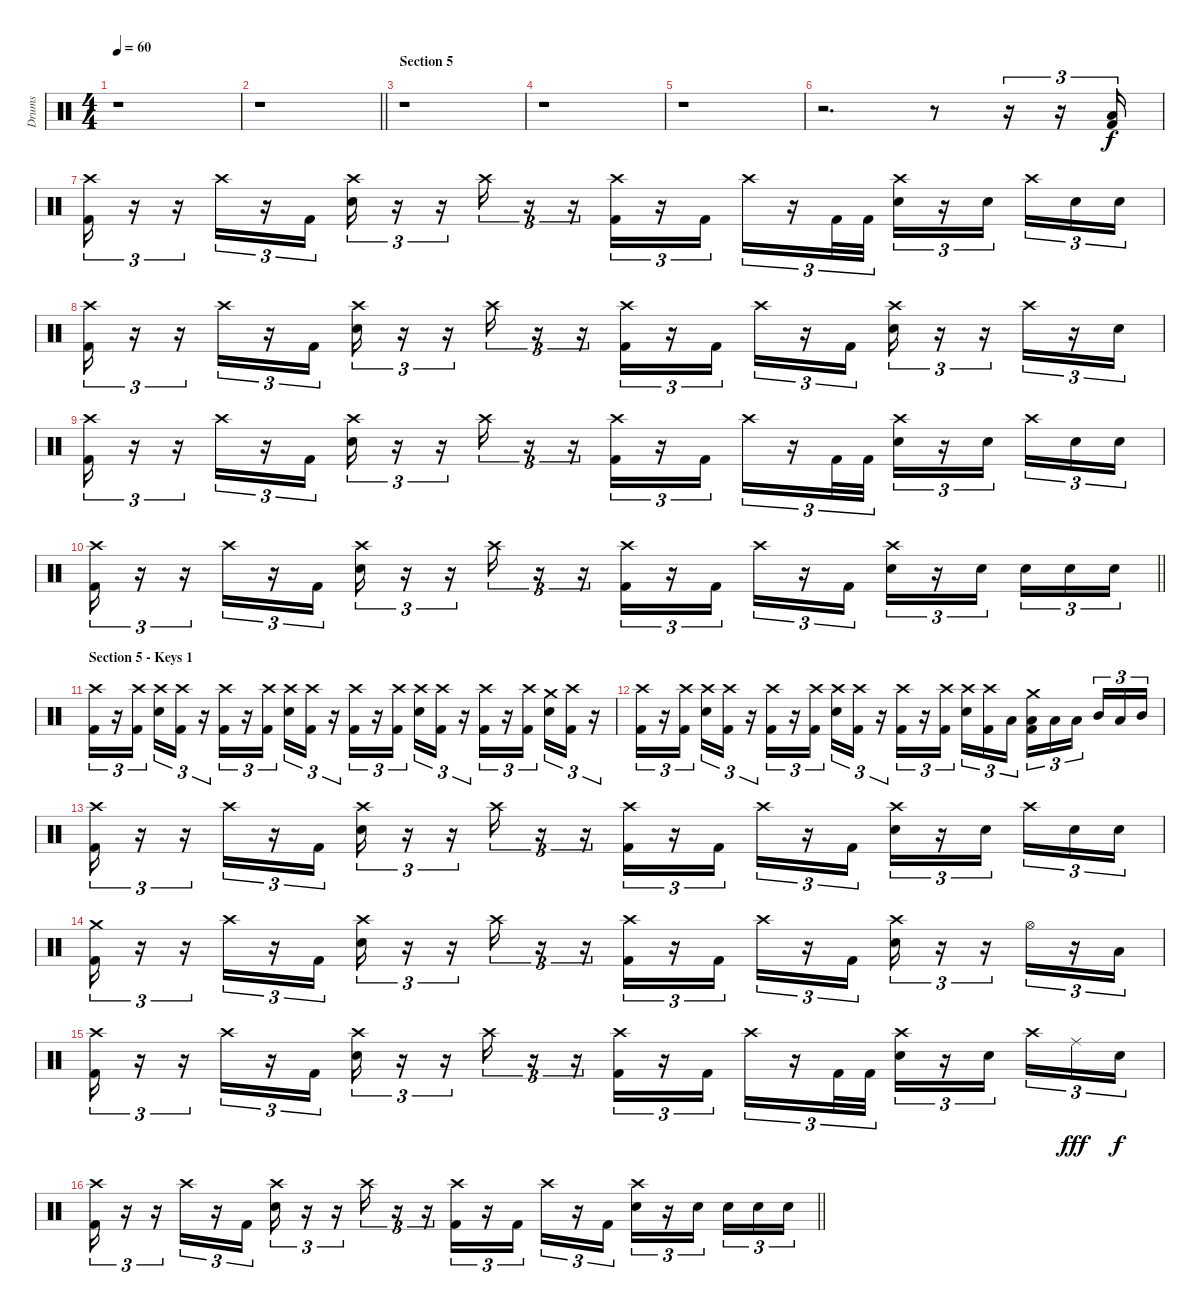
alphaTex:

\track ("Drums" "Drums") {instrument percussion}
\staff {score}
\articulation defaults
\ts (4 4)
\tempo 60
\clef neutral
\ks c
r.1{dy f} |
\barLineRight lightlight
r.1 |
\section ("" "Section 5")
r.1 |
r.1 |
r.1 |
r.2{d} r.8 r.16{tu (3 2)} r.16{tu (3 2)} ("Low Floor Tom (hit)" "Kick (hit) 2").16{tu (3 2)} |
("Crash high (hit)" "Kick (hit) 2").16{tu (3 2)} r.16{tu (3 2)} r.16{tu (3 2)} "Crash high (hit)".16{tu (3 2)} r.16{tu (3 2)} "Kick (hit) 2".16{tu (3 2)} ("Crash high (hit)" "Electric Snare (hit)").16{tu (3 2)} r.16{tu (3 2)} r.16{tu (3 2)} "Crash high (hit)".16{tu (3 2)} r.16{tu (3 2)} r.16{tu (3 2)} ("Crash high (hit)" "Kick (hit) 2").16{tu (3 2)} r.16{tu (3 2)} "Kick (hit) 2".16{tu (3 2)} "Crash high (hit)".16{tu (3 2)} r.16{tu (3 2)} "Kick (hit) 2".32{tu (3 2)} "Kick (hit) 2".32{tu (3 2)} ("Crash high (hit)" "Electric Snare (hit)").16{tu (3 2)} r.16{tu (3 2)} "Electric Snare (hit)".16{tu (3 2) beam splitsecondary} "Crash high (hit)".16{tu (3 2)} "Electric Snare (hit)".16{tu (3 2)} "Electric Snare (hit)".16{tu (3 2)} |
("Crash high (hit)" "Kick (hit) 2").16{tu (3 2)} r.16{tu (3 2)} r.16{tu (3 2)} "Crash high (hit)".16{tu (3 2)} r.16{tu (3 2)} "Kick (hit) 2".16{tu (3 2)} ("Crash high (hit)" "Electric Snare (hit)").16{tu (3 2)} r.16{tu (3 2)} r.16{tu (3 2)} "Crash high (hit)".16{tu (3 2)} r.16{tu (3 2)} r.16{tu (3 2)} ("Crash high (hit)" "Kick (hit) 2").16{tu (3 2)} r.16{tu (3 2)} "Kick (hit) 2".16{tu (3 2)} "Crash high (hit)".16{tu (3 2)} r.16{tu (3 2)} "Kick (hit) 2".16{tu (3 2)} ("Crash high (hit)" "Electric Snare (hit)").16{tu (3 2)} r.16{tu (3 2)} r.16{tu (3 2)} "Crash high (hit)".16{tu (3 2)} r.16{tu (3 2)} "Electric Snare (hit)".16{tu (3 2)} |
("Crash high (hit)" "Kick (hit) 2").16{tu (3 2)} r.16{tu (3 2)} r.16{tu (3 2)} "Crash high (hit)".16{tu (3 2)} r.16{tu (3 2)} "Kick (hit) 2".16{tu (3 2)} ("Crash high (hit)" "Electric Snare (hit)").16{tu (3 2)} r.16{tu (3 2)} r.16{tu (3 2)} "Crash high (hit)".16{tu (3 2)} r.16{tu (3 2)} r.16{tu (3 2)} ("Crash high (hit)" "Kick (hit) 2").16{tu (3 2)} r.16{tu (3 2)} "Kick (hit) 2".16{tu (3 2)} "Crash high (hit)".16{tu (3 2)} r.16{tu (3 2)} "Kick (hit) 2".32{tu (3 2)} "Kick (hit) 2".32{tu (3 2)} ("Crash high (hit)" "Electric Snare (hit)").16{tu (3 2)} r.16{tu (3 2)} "Electric Snare (hit)".16{tu (3 2) beam splitsecondary} "Crash high (hit)".16{tu (3 2)} "Electric Snare (hit)".16{tu (3 2)} "Electric Snare (hit)".16{tu (3 2)} |
\barLineRight lightlight
("Crash high (hit)" "Kick (hit) 2").16{tu (3 2)} r.16{tu (3 2)} r.16{tu (3 2)} "Crash high (hit)".16{tu (3 2)} r.16{tu (3 2)} "Kick (hit) 2".16{tu (3 2)} ("Crash high (hit)" "Electric Snare (hit)").16{tu (3 2)} r.16{tu (3 2)} r.16{tu (3 2)} "Crash high (hit)".16{tu (3 2)} r.16{tu (3 2)} r.16{tu (3 2)} ("Crash high (hit)" "Kick (hit) 2").16{tu (3 2)} r.16{tu (3 2)} "Kick (hit) 2".16{tu (3 2)} "Crash high (hit)".16{tu (3 2)} r.16{tu (3 2)} "Kick (hit) 2".16{tu (3 2)} ("Crash high (hit)" "Electric Snare (hit)").16{tu (3 2)} r.16{tu (3 2)} "Electric Snare (hit)".16{tu (3 2) beam splitsecondary} "Electric Snare (hit)".16{tu (3 2)} "Electric Snare (hit)".16{tu (3 2)} "Electric Snare (hit)".16{tu (3 2)} |
\section ("" "Section 5 - Keys 1")
("Crash high (hit)" "Kick (hit) 2").16{tu (3 2)} r.16{tu (3 2)} ("Crash high (hit)" "Kick (hit) 2").16{tu (3 2) beam splitsecondary} ("Crash high (hit)" "Electric Snare (hit)").16{tu (3 2)} ("Crash high (hit)" "Kick (hit) 2").16{tu (3 2)} r.16{tu (3 2)} ("Crash high (hit)" "Kick (hit) 2").16{tu (3 2)} r.16{tu (3 2)} ("Crash high (hit)" "Kick (hit) 2").16{tu (3 2) beam splitsecondary} ("Crash high (hit)" "Electric Snare (hit)").16{tu (3 2)} ("Crash high (hit)" "Kick (hit) 2").16{tu (3 2)} r.16{tu (3 2)} ("Crash high (hit)" "Kick (hit) 2").16{tu (3 2)} r.16{tu (3 2)} ("Crash high (hit)" "Kick (hit) 2").16{tu (3 2) beam splitsecondary} ("Crash high (hit)" "Electric Snare (hit)").16{tu (3 2)} ("Crash high (hit)" "Kick (hit) 2").16{tu (3 2)} r.16{tu (3 2)} ("Crash high (hit)" "Kick (hit) 2").16{tu (3 2)} r.16{tu (3 2)} ("Crash high (hit)" "Kick (hit) 2").16{tu (3 2) beam splitsecondary} ("Crash medium (hit)" "Electric Snare (hit)").16{tu (3 2)} ("Crash high (hit)" "Kick (hit) 2").16{tu (3 2)} r.16{tu (3 2)} |
("Crash high (hit)" "Kick (hit) 2").16{tu (3 2)} r.16{tu (3 2)} ("Crash high (hit)" "Kick (hit) 2").16{tu (3 2) beam splitsecondary} ("Crash high (hit)" "Electric Snare (hit)").16{tu (3 2)} ("Crash high (hit)" "Kick (hit) 2").16{tu (3 2)} r.16{tu (3 2)} ("Crash high (hit)" "Kick (hit) 2").16{tu (3 2)} r.16{tu (3 2)} ("Crash high (hit)" "Kick (hit) 2").16{tu (3 2) beam splitsecondary} ("Crash high (hit)" "Electric Snare (hit)").16{tu (3 2)} ("Crash high (hit)" "Kick (hit) 2").16{tu (3 2)} r.16{tu (3 2)} ("Crash high (hit)" "Kick (hit) 2").16{tu (3 2)} r.16{tu (3 2)} ("Crash high (hit)" "Kick (hit) 2").16{tu (3 2) beam splitsecondary} ("Crash high (hit)" "Electric Snare (hit)").16{tu (3 2)} ("Crash high (hit)" "Kick (hit) 2").16{tu (3 2)} "Low Tom (hit)".16{tu (3 2)} ("Crash medium (hit)" "Low Floor Tom (hit)" "Kick (hit) 2").16{tu (3 2)} "Low Tom (hit)".16{tu (3 2)} "Low Floor Tom (hit)".16{tu (3 2) beam splitsecondary} "Mid Tom (hit)".16{tu (3 2)} "Low Floor Tom (hit)".16{tu (3 2)} "Mid Tom (hit)".16{tu (3 2)} |
("Crash high (hit)" "Kick (hit) 2").16{tu (3 2)} r.16{tu (3 2)} r.16{tu (3 2)} "Crash high (hit)".16{tu (3 2)} r.16{tu (3 2)} "Kick (hit) 2".16{tu (3 2)} ("Crash high (hit)" "Electric Snare (hit)").16{tu (3 2)} r.16{tu (3 2)} r.16{tu (3 2)} "Crash high (hit)".16{tu (3 2)} r.16{tu (3 2)} r.16{tu (3 2)} ("Crash high (hit)" "Kick (hit) 2").16{tu (3 2)} r.16{tu (3 2)} "Kick (hit) 2".16{tu (3 2)} "Crash high (hit)".16{tu (3 2)} r.16{tu (3 2)} "Kick (hit) 2".16{tu (3 2)} ("Crash high (hit)" "Electric Snare (hit)").16{tu (3 2)} r.16{tu (3 2)} "Electric Snare (hit)".16{tu (3 2) beam splitsecondary} "Crash high (hit)".16{tu (3 2)} "Electric Snare (hit)".16{tu (3 2)} "Electric Snare (hit)".16{tu (3 2)} |
("Crash medium (hit)" "Kick (hit) 2").16{tu (3 2)} r.16{tu (3 2)} r.16{tu (3 2)} "Crash high (hit)".16{tu (3 2)} r.16{tu (3 2)} "Kick (hit) 2".16{tu (3 2)} ("Crash high (hit)" "Electric Snare (hit)").16{tu (3 2)} r.16{tu (3 2)} r.16{tu (3 2)} "Crash high (hit)".16{tu (3 2)} r.16{tu (3 2)} r.16{tu (3 2)} ("Crash high (hit)" "Kick (hit) 2").16{tu (3 2)} r.16{tu (3 2)} "Kick (hit) 2".16{tu (3 2)} "Crash high (hit)".16{tu (3 2)} r.16{tu (3 2)} "Kick (hit) 2".16{tu (3 2)} ("Crash high (hit)" "Electric Snare (hit)").16{tu (3 2)} r.16{tu (3 2)} r.16{tu (3 2)} "Hi-Hat (open)".16{tu (3 2)} r.16{tu (3 2)} "Low Floor Tom (hit)".16{tu (3 2)} |
("Crash high (hit)" "Kick (hit) 2").16{tu (3 2)} r.16{tu (3 2)} r.16{tu (3 2)} "Crash high (hit)".16{tu (3 2)} r.16{tu (3 2)} "Kick (hit) 2".16{tu (3 2)} ("Crash high (hit)" "Electric Snare (hit)").16{tu (3 2)} r.16{tu (3 2)} r.16{tu (3 2)} "Crash high (hit)".16{tu (3 2)} r.16{tu (3 2)} r.16{tu (3 2)} ("Crash high (hit)" "Kick (hit) 2").16{tu (3 2)} r.16{tu (3 2)} "Kick (hit) 2".16{tu (3 2)} "Crash high (hit)".16{tu (3 2)} r.16{tu (3 2)} "Kick (hit) 2".32{tu (3 2)} "Kick (hit) 2".32{tu (3 2)} ("Crash high (hit)" "Electric Snare (hit)").16{tu (3 2)} r.16{tu (3 2)} "Electric Snare (hit)".16{tu (3 2) beam splitsecondary} "Crash high (hit)".16{tu (3 2)} "Ride (middle)".16{tu (3 2) dy fff} "Electric Snare (hit)".16{tu (3 2) dy f} |
\barLineRight lightlight
("Crash high (hit)" "Kick (hit) 2").16{tu (3 2)} r.16{tu (3 2)} r.16{tu (3 2)} "Crash high (hit)".16{tu (3 2)} r.16{tu (3 2)} "Kick (hit) 2".16{tu (3 2)} ("Crash high (hit)" "Electric Snare (hit)").16{tu (3 2)} r.16{tu (3 2)} r.16{tu (3 2)} "Crash high (hit)".16{tu (3 2)} r.16{tu (3 2)} r.16{tu (3 2)} ("Crash high (hit)" "Kick (hit) 2").16{tu (3 2)} r.16{tu (3 2)} "Kick (hit) 2".16{tu (3 2)} "Crash high (hit)".16{tu (3 2)} r.16{tu (3 2)} "Kick (hit) 2".16{tu (3 2)} ("Crash high (hit)" "Electric Snare (hit)").16{tu (3 2)} r.16{tu (3 2)} "Electric Snare (hit)".16{tu (3 2) beam splitsecondary} "Electric Snare (hit)".16{tu (3 2)} "Electric Snare (hit)".16{tu (3 2)} "Electric Snare (hit)".16{tu (3 2)}
